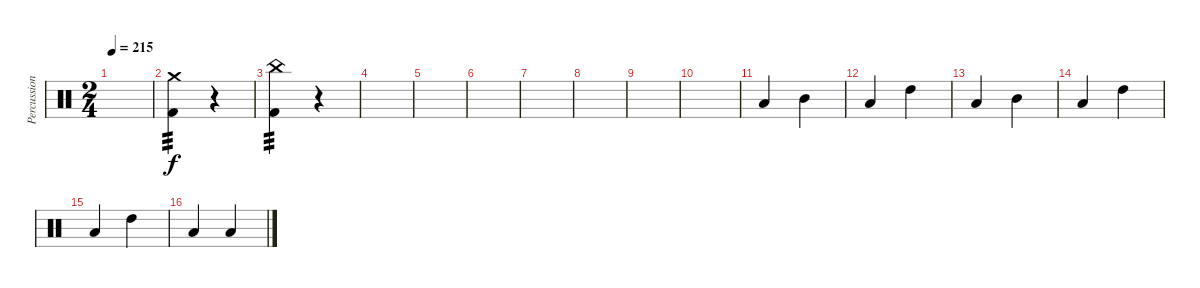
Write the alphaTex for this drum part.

\track ("Percussion" "Percussion") {instrument percussion}
\staff {score}
\articulation defaults
\ts (2 4)
\tempo 215
\clef neutral
\ks c
|
("Crash medium (hit)" "Kick (hit) 2").4{tp 3} r.4 |
("China (hit)" "Kick (hit) 2").4{tp 3} r.4 |
|
|
|
|
|
|
|
"Low Tom (hit)".4 "Mid Tom (hit)".4 |
"Low Tom (hit)".4 "High Tom (hit)".4 |
"Low Tom (hit)".4 "Mid Tom (hit)".4 |
"Low Tom (hit)".4 "High Tom (hit)".4 |
"Low Tom (hit)".4 "High Tom (hit)".4 |
"Low Tom (hit)".4 "Low Tom (hit)".4
